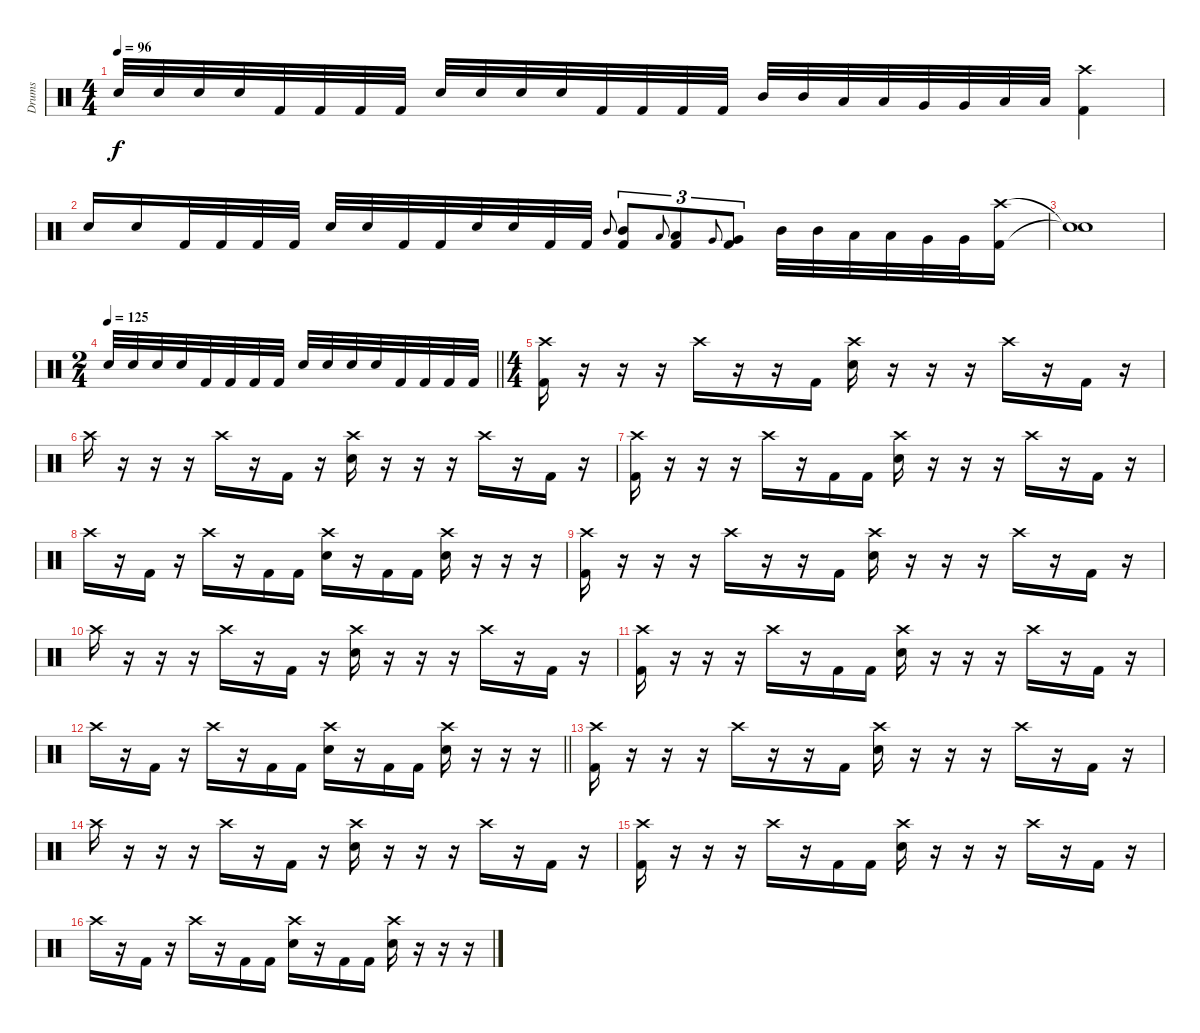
\track ("Drums" "Drums") {instrument percussion}
\staff
\articulation defaults
\ts (4 4)
\tempo 96
\clef neutral
\ks c "Electric Snare (hit)".32{dy f} "Electric Snare (hit)".32 "Electric Snare (hit)".32 "Electric Snare (hit)".32 "Kick (hit) 2".32 "Kick (hit) 2".32 "Kick (hit) 2".32 "Kick (hit) 2".32 "Electric Snare (hit)".32 "Electric Snare (hit)".32 "Electric Snare (hit)".32 "Electric Snare (hit)".32 "Kick (hit) 2".32 "Kick (hit) 2".32 "Kick (hit) 2".32 "Kick (hit) 2".32 "Mid Tom (hit)".32 "Mid Tom (hit)".32 "Low Tom (hit)".32 "Low Tom (hit)".32 "Very Low Tom (hit)".32 "Very Low Tom (hit)".32 "Low Floor Tom (hit)".32 "Low Floor Tom (hit)".32
("Crash high (hit)" "Kick (hit) 2").4 |
"Electric Snare (hit)".16 "Electric Snare (hit)".16 "Kick (hit) 2".32 "Kick (hit) 2".32 "Kick (hit) 2".32 "Kick (hit) 2".32 "Electric Snare (hit)".32 "Electric Snare (hit)".32 "Kick (hit) 2".32 "Kick (hit) 2".32 "Electric Snare (hit)".32 "Electric Snare (hit)".32 "Kick (hit) 2".32 "Kick (hit) 2".32 "Mid Tom (hit)"{h}.8{gr onbeat} ("Mid Tom (hit)" "Kick (hit) 2").8{tu (3 2)} "Low Tom (hit)".8{gr onbeat} ("Low Tom (hit)" "Kick (hit) 2").8{tu (3 2)} "Very Low Tom (hit)"{h}.8{gr onbeat} ("Very Low Tom (hit)" "Kick (hit) 2").8{tu (3 2)} "Mid Tom (hit)".32 "Mid Tom (hit)".32 "Low Tom (hit)".32 "Low Tom (hit)".32 "Very Low Tom (hit)".32 "Very Low Tom (hit)".32 ("Crash high (hit)" "Kick (hit) 2").16 |
("Snare (hit)"{t} "Snare (hit)"{t}).1 |
\ts (2 4)
\tempo 125
\barLineRight lightlight "Electric Snare (hit)".32 "Electric Snare (hit)".32 "Electric Snare (hit)".32 "Electric Snare (hit)".32 "Kick (hit) 2".32 "Kick (hit) 2".32 "Kick (hit) 2".32 "Kick (hit) 2".32 "Electric Snare (hit)".32 "Electric Snare (hit)".32 "Electric Snare (hit)".32 "Electric Snare (hit)".32 "Kick (hit) 2".32 "Kick (hit) 2".32 "Kick (hit) 2".32 "Kick (hit) 2".32
|
\ts (4 4)
\section ("" "")
("Crash high (hit)" "Kick (hit) 2").16 r.16 r.16 r.16 "Crash high (hit)".16 r.16 r.16 "Kick (hit) 2".16 ("Crash high (hit)" "Electric Snare (hit)").16 r.16 r.16 r.16 "Crash high (hit)".16 r.16 "Kick (hit) 2".16 r.16 |
"Crash high (hit)".16 r.16 r.16 r.16 "Crash high (hit)".16 r.16 "Kick (hit) 2".16 r.16 ("Crash high (hit)" "Electric Snare (hit)").16 r.16 r.16 r.16 "Crash high (hit)".16 r.16 "Kick (hit) 2".16 r.16 |
("Crash high (hit)" "Kick (hit) 2").16 r.16 r.16 r.16 "Crash high (hit)".16 r.16 "Kick (hit) 2".16 "Kick (hit) 2".16 ("Crash high (hit)" "Electric Snare (hit)").16 r.16 r.16 r.16 "Crash high (hit)".16 r.16 "Kick (hit) 2".16 r.16 |
"Crash high (hit)".16 r.16 "Kick (hit) 2".16 r.16 "Crash high (hit)".16 r.16 "Kick (hit) 2".16 "Kick (hit) 2".16 ("Crash high (hit)" "Electric Snare (hit)").16 r.16 "Kick (hit) 2".16 "Kick (hit) 2".16 ("Crash high (hit)" "Electric Snare (hit)").16 r.16 r.16 r.16 |
("Crash high (hit)" "Kick (hit) 2").16 r.16 r.16 r.16 "Crash high (hit)".16 r.16 r.16 "Kick (hit) 2".16 ("Crash high (hit)" "Electric Snare (hit)").16 r.16 r.16 r.16 "Crash high (hit)".16 r.16 "Kick (hit) 2".16 r.16 |
"Crash high (hit)".16 r.16 r.16 r.16 "Crash high (hit)".16 r.16 "Kick (hit) 2".16 r.16 ("Crash high (hit)" "Electric Snare (hit)").16 r.16 r.16 r.16 "Crash high (hit)".16 r.16 "Kick (hit) 2".16 r.16 |
("Crash high (hit)" "Kick (hit) 2").16 r.16 r.16 r.16 "Crash high (hit)".16 r.16 "Kick (hit) 2".16 "Kick (hit) 2".16 ("Crash high (hit)" "Electric Snare (hit)").16 r.16 r.16 r.16 "Crash high (hit)".16 r.16 "Kick (hit) 2".16 r.16 |
\barLineRight lightlight "Crash high (hit)".16
r.16 "Kick (hit) 2".16 r.16 "Crash high (hit)".16 r.16 "Kick (hit) 2".16 "Kick (hit) 2".16 ("Crash high (hit)" "Electric Snare (hit)").16 r.16 "Kick (hit) 2".16 "Kick (hit) 2".16 ("Crash high (hit)" "Electric Snare (hit)").16 r.16 r.16 r.16 |
("Crash high (hit)" "Kick (hit) 2").16 r.16 r.16 r.16 "Crash high (hit)".16 r.16 r.16 "Kick (hit) 2".16 ("Crash high (hit)" "Electric Snare (hit)").16 r.16 r.16 r.16 "Crash high (hit)".16 r.16 "Kick (hit) 2".16 r.16 |
"Crash high (hit)".16 r.16 r.16 r.16 "Crash high (hit)".16 r.16 "Kick (hit) 2".16 r.16 ("Crash high (hit)" "Electric Snare (hit)").16 r.16 r.16 r.16 "Crash high (hit)".16 r.16 "Kick (hit) 2".16 r.16 |
("Crash high (hit)" "Kick (hit) 2").16 r.16 r.16 r.16 "Crash high (hit)".16 r.16 "Kick (hit) 2".16 "Kick (hit) 2".16 ("Crash high (hit)" "Electric Snare (hit)").16 r.16 r.16 r.16 "Crash high (hit)".16 r.16 "Kick (hit) 2".16 r.16 |
"Crash high (hit)".16 r.16 "Kick (hit) 2".16 r.16 "Crash high (hit)".16 r.16 "Kick (hit) 2".16 "Kick (hit) 2".16 ("Crash high (hit)" "Electric Snare (hit)").16 r.16 "Kick (hit) 2".16 "Kick (hit) 2".16 ("Crash high (hit)" "Electric Snare (hit)").16 r.16 r.16 r.16
